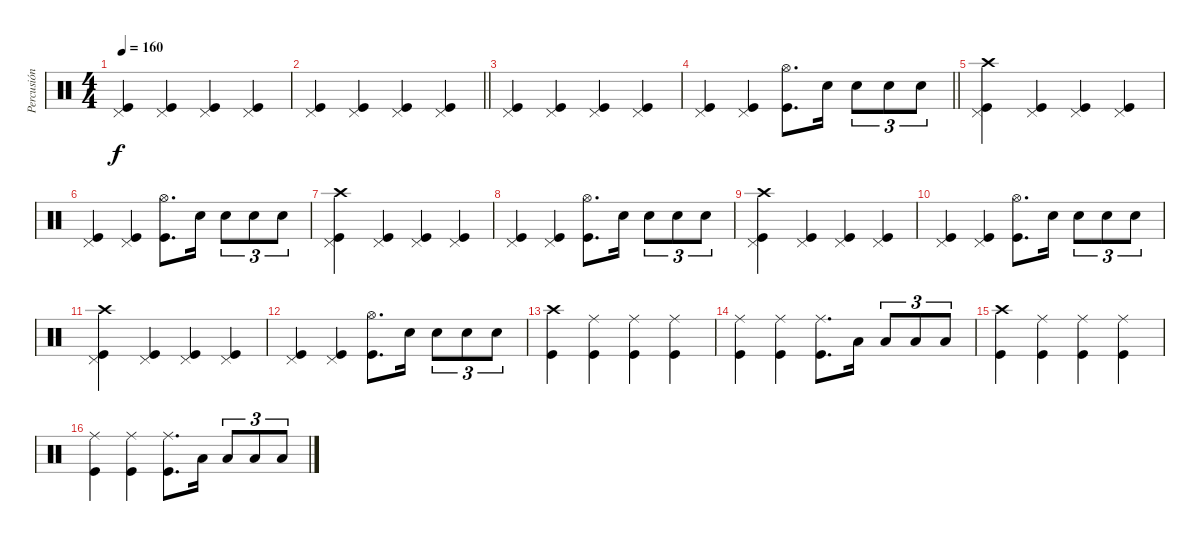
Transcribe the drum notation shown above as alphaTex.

\track ("Percusión" "Percusión") {instrument percussion}
\staff {score}
\articulation defaults
\ts (4 4)
\tempo 160
\clef neutral
\ks c
("Pedal Hi-Hat (hit)" "Kick (hit)").4{dy f} ("Pedal Hi-Hat (hit)" "Kick (hit)").4 ("Pedal Hi-Hat (hit)" "Kick (hit)").4 ("Pedal Hi-Hat (hit)" "Kick (hit)").4 |
\barLineRight lightlight
("Pedal Hi-Hat (hit)" "Kick (hit)").4 ("Pedal Hi-Hat (hit)" "Kick (hit)").4 ("Pedal Hi-Hat (hit)" "Kick (hit)").4 ("Pedal Hi-Hat (hit)" "Kick (hit)").4 |
("Pedal Hi-Hat (hit)" "Kick (hit)").4 ("Pedal Hi-Hat (hit)" "Kick (hit)").4 ("Pedal Hi-Hat (hit)" "Kick (hit)").4 ("Pedal Hi-Hat (hit)" "Kick (hit)").4 |
\barLineRight lightlight
("Pedal Hi-Hat (hit)" "Kick (hit)").4 ("Pedal Hi-Hat (hit)" "Kick (hit)").4 ("Hi-Hat (open)" "Kick (hit)").8{d} "Snare (hit) 2".16 "Snare (hit) 2".8{tu (3 2)} "Snare (hit) 2".8{tu (3 2)} "Snare (hit) 2".8{tu (3 2)} |
("Crash high (hit)" "Pedal Hi-Hat (hit)" "Kick (hit)").4 ("Pedal Hi-Hat (hit)" "Kick (hit)").4 ("Pedal Hi-Hat (hit)" "Kick (hit)").4 ("Pedal Hi-Hat (hit)" "Kick (hit)").4 |
("Pedal Hi-Hat (hit)" "Kick (hit)").4 ("Pedal Hi-Hat (hit)" "Kick (hit)").4 ("Hi-Hat (open)" "Kick (hit)").8{d} "Snare (hit) 2".16 "Snare (hit) 2".8{tu (3 2)} "Snare (hit) 2".8{tu (3 2)} "Snare (hit) 2".8{tu (3 2)} |
("Crash high (hit)" "Pedal Hi-Hat (hit)" "Kick (hit)").4 ("Pedal Hi-Hat (hit)" "Kick (hit)").4 ("Pedal Hi-Hat (hit)" "Kick (hit)").4 ("Pedal Hi-Hat (hit)" "Kick (hit)").4 |
("Pedal Hi-Hat (hit)" "Kick (hit)").4 ("Pedal Hi-Hat (hit)" "Kick (hit)").4 ("Hi-Hat (open)" "Kick (hit)").8{d} "Snare (hit) 2".16 "Snare (hit) 2".8{tu (3 2)} "Snare (hit) 2".8{tu (3 2)} "Snare (hit) 2".8{tu (3 2)} |
("Crash high (hit)" "Pedal Hi-Hat (hit)" "Kick (hit)").4 ("Pedal Hi-Hat (hit)" "Kick (hit)").4 ("Pedal Hi-Hat (hit)" "Kick (hit)").4 ("Pedal Hi-Hat (hit)" "Kick (hit)").4 |
("Pedal Hi-Hat (hit)" "Kick (hit)").4 ("Pedal Hi-Hat (hit)" "Kick (hit)").4 ("Hi-Hat (open)" "Kick (hit)").8{d} "Snare (hit) 2".16 "Snare (hit) 2".8{tu (3 2)} "Snare (hit) 2".8{tu (3 2)} "Snare (hit) 2".8{tu (3 2)} |
("Crash high (hit)" "Pedal Hi-Hat (hit)" "Kick (hit)").4 ("Pedal Hi-Hat (hit)" "Kick (hit)").4 ("Pedal Hi-Hat (hit)" "Kick (hit)").4 ("Pedal Hi-Hat (hit)" "Kick (hit)").4 |
("Pedal Hi-Hat (hit)" "Kick (hit)").4 ("Pedal Hi-Hat (hit)" "Kick (hit)").4 ("Hi-Hat (open)" "Kick (hit)").8{d} "Snare (hit) 2".16 "Snare (hit) 2".8{tu (3 2)} "Snare (hit) 2".8{tu (3 2)} "Snare (hit) 2".8{tu (3 2)} |
("Crash high (hit)" "Kick (hit)").4 ("Ride (middle)" "Kick (hit)").4 ("Ride (middle)" "Kick (hit)").4 ("Ride (middle)" "Kick (hit)").4 |
("Ride (middle)" "Kick (hit)").4 ("Ride (middle)" "Kick (hit)").4 ("Ride (middle)" "Kick (hit)").8{d} "Low Tom (hit)".16 "Low Tom (hit)".8{tu (3 2)} "Low Tom (hit)".8{tu (3 2)} "Low Tom (hit)".8{tu (3 2)} |
("Crash high (hit)" "Kick (hit)").4 ("Ride (middle)" "Kick (hit)").4 ("Ride (middle)" "Kick (hit)").4 ("Ride (middle)" "Kick (hit)").4 |
("Ride (middle)" "Kick (hit)").4 ("Ride (middle)" "Kick (hit)").4 ("Ride (middle)" "Kick (hit)").8{d} "Low Tom (hit)".16 "Low Tom (hit)".8{tu (3 2)} "Low Tom (hit)".8{tu (3 2)} "Low Tom (hit)".8{tu (3 2)}
